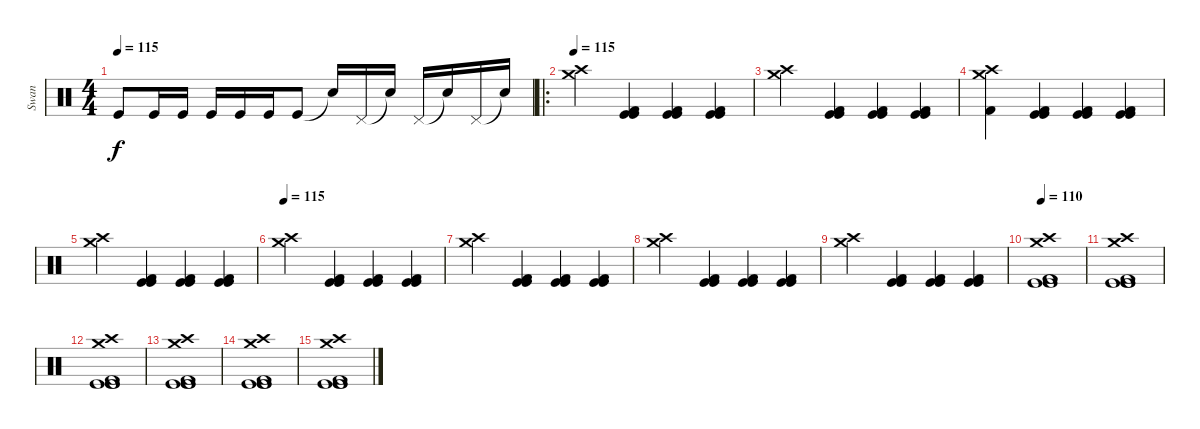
\track ("Swan" "Swan") {instrument percussion}
\staff {score}
\articulation defaults
\ts (4 4)
\tempo 115
\clef neutral
\ks c "Kick (hit)".8{dy f} "Kick (hit)".16 "Kick (hit)".16 "Kick (hit)".16 "Kick (hit)".16 "Kick (hit)".16 "Kick (hit)".8 "Snare (hit)"{t}.16 "Pedal Hi-Hat (hit)".16 "Snare (hit)"{t}.16 "Pedal Hi-Hat (hit)".16 "Snare (hit)"{t}.16 "Pedal Hi-Hat (hit)".16 "Snare (hit)"{t}.16
|
\ro
\tempo 115
("Crash high (hit)" "Crash medium (hit)").4 ("Kick (hit) 2" "Kick (hit)" "Kick (hit)").4 ("Kick (hit) 2" "Kick (hit)" "Kick (hit)").4 ("Kick (hit) 2" "Kick (hit)" "Kick (hit)").4 |
("Crash high (hit)" "Crash medium (hit)").4 ("Kick (hit) 2" "Kick (hit)" "Kick (hit)").4 ("Kick (hit) 2" "Kick (hit)" "Kick (hit)").4 ("Kick (hit) 2" "Kick (hit)" "Kick (hit)").4 |
("Kick (hit) 2" "Crash high (hit)" "Crash medium (hit)").4 ("Kick (hit) 2" "Kick (hit)" "Kick (hit)").4 ("Kick (hit) 2" "Kick (hit)" "Kick (hit)").4 ("Kick (hit) 2" "Kick (hit)" "Kick (hit)").4 |
("Crash high (hit)" "Crash medium (hit)").4 ("Kick (hit) 2" "Kick (hit)" "Kick (hit)").4 ("Kick (hit) 2" "Kick (hit)" "Kick (hit)").4 ("Kick (hit) 2" "Kick (hit)" "Kick (hit)").4 |
\tempo 115
("Crash high (hit)" "Crash medium (hit)").4 ("Kick (hit) 2" "Kick (hit)" "Kick (hit)").4 ("Kick (hit) 2" "Kick (hit)" "Kick (hit)").4 ("Kick (hit) 2" "Kick (hit)" "Kick (hit)").4 |
("Crash high (hit)" "Crash medium (hit)").4 ("Kick (hit) 2" "Kick (hit)" "Kick (hit)").4 ("Kick (hit) 2" "Kick (hit)" "Kick (hit)").4 ("Kick (hit) 2" "Kick (hit)" "Kick (hit)").4 |
("Crash high (hit)" "Crash medium (hit)").4 ("Kick (hit) 2" "Kick (hit)" "Kick (hit)").4 ("Kick (hit) 2" "Kick (hit)" "Kick (hit)").4 ("Kick (hit) 2" "Kick (hit)" "Kick (hit)").4 |
("Crash high (hit)" "Crash medium (hit)").4 ("Kick (hit) 2" "Kick (hit)" "Kick (hit)").4 ("Kick (hit) 2" "Kick (hit)" "Kick (hit)").4 ("Kick (hit) 2" "Kick (hit)" "Kick (hit)").4 |
\tempo 110
("Crash medium (hit)" "Crash high (hit)" "Kick (hit) 2" "Kick (hit) 2" "Kick (hit)" "Kick (hit)").1 |
("Crash medium (hit)" "Crash high (hit)" "Kick (hit) 2" "Kick (hit)" "Kick (hit)" "Kick (hit)").1 |
("Crash medium (hit)" "Crash high (hit)" "Kick (hit) 2" "Kick (hit)" "Kick (hit)" "Kick (hit)").1 |
("Crash medium (hit)" "Crash high (hit)" "Kick (hit) 2" "Kick (hit)" "Kick (hit)" "Kick (hit)").1 |
("Crash medium (hit)" "Crash high (hit)" "Kick (hit) 2" "Kick (hit)" "Kick (hit)" "Kick (hit)").1 |
("Crash medium (hit)" "Crash high (hit)" "Kick (hit) 2" "Kick (hit)" "Kick (hit)" "Kick (hit)").1
